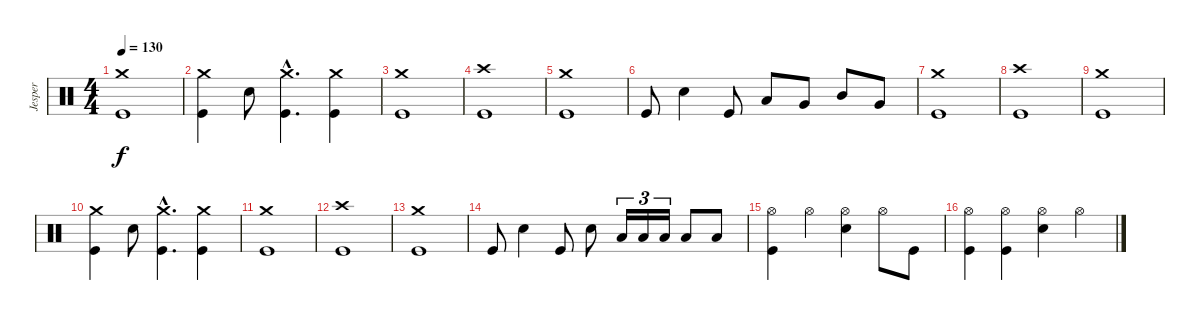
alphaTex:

\track ("Jesper" "Jesper") {instrument percussion}
\staff {score}
\articulation defaults
\ts (4 4)
\tempo 130
\clef neutral
\ks c
("Crash medium (hit)" "Kick (hit)").1{dy f} |
("Crash medium (hit)" "Kick (hit)").4 "Electric Snare (hit)".8 ("Crash medium (hit)"{hac} "Kick (hit)"{hac}).4{d} ("Crash medium (hit)" "Kick (hit)").4 |
("Crash medium (hit)" "Kick (hit)").1 |
("Crash high (hit)" "Kick (hit)").1 |
("Crash medium (hit)" "Kick (hit)").1 |
"Kick (hit)".8 "Electric Snare (hit)".4 "Kick (hit)".8 "Low Tom (hit)".8 "Very Low Tom (hit)".8 "Mid Tom (hit)".8 "Very Low Tom (hit)".8 |
("Crash medium (hit)" "Kick (hit)").1 |
("Crash high (hit)" "Kick (hit)").1 |
("Crash medium (hit)" "Kick (hit)").1 |
("Crash medium (hit)" "Kick (hit)").4 "Electric Snare (hit)".8 ("Crash medium (hit)"{hac} "Kick (hit)"{hac}).4{d} ("Crash medium (hit)" "Kick (hit)").4 |
("Crash medium (hit)" "Kick (hit)").1 |
("Crash high (hit)" "Kick (hit)").1 |
("Crash medium (hit)" "Kick (hit)").1 |
"Kick (hit)".8 "Electric Snare (hit)".4 "Kick (hit)".8 "Electric Snare (hit)".8 "Low Tom (hit)".16{tu (3 2)} "Low Tom (hit)".16{tu (3 2)} "Low Tom (hit)".16{tu (3 2)} "Low Tom (hit)".8 "Low Floor Tom (hit)".8 |
("Hi-Hat (open)" "Kick (hit)").4 "Hi-Hat (open)".4 ("Hi-Hat (open)" "Electric Snare (hit)").4 "Hi-Hat (open)".8 "Kick (hit)".8 |
("Hi-Hat (open)" "Kick (hit)").4 ("Hi-Hat (open)" "Kick (hit)").4 ("Hi-Hat (open)" "Electric Snare (hit)").4 "Hi-Hat (open)".4
